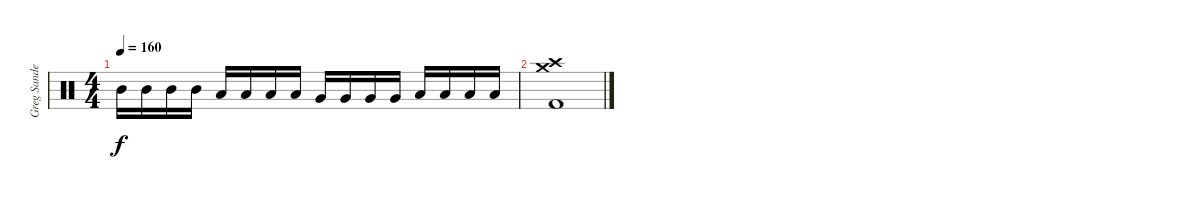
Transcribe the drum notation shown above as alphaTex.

\track ("Greg Sanderson" "Greg Sande") {instrument percussion}
\staff {score}
\articulation defaults
\ts (4 4)
\tempo 160
\clef neutral
\ks c "Mid Tom (hit)".16{dy f} "Mid Tom (hit)".16 "Mid Tom (hit)".16 "Mid Tom (hit)".16 "Low Tom (hit)".16 "Low Tom (hit)".16 "Low Tom (hit)".16 "Low Tom (hit)".16 "Very Low Tom (hit)".16 "Very Low Tom (hit)".16 "Very Low Tom (hit)".16 "Very Low Tom (hit)".16 "Low Floor Tom (hit)".16 "Low Floor Tom (hit)".16 "Low Floor Tom (hit)".16 "Low Floor Tom (hit)".16
|
("Crash high (hit)" "Crash medium (hit)" "Kick (hit) 2").1
